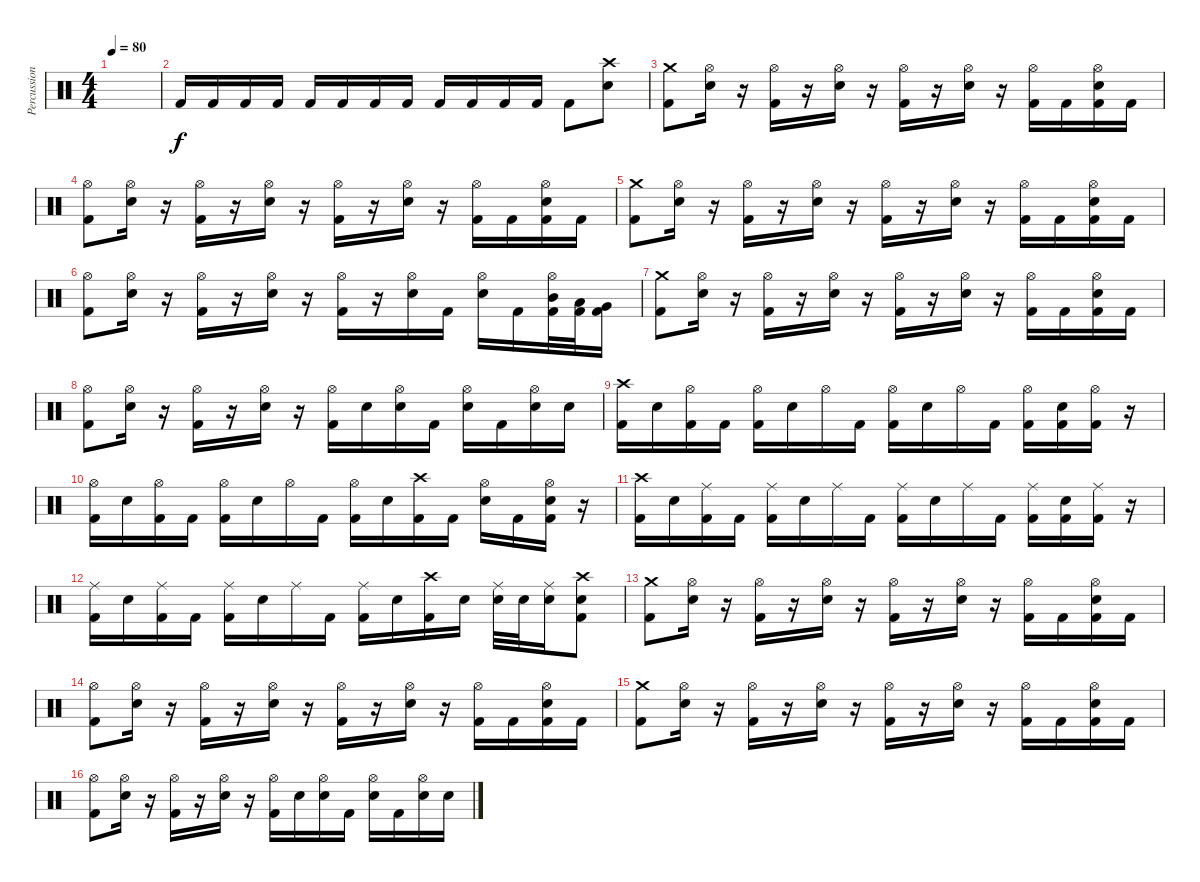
\track ("Percussion" "Percussion") {instrument percussion}
\staff {score}
\articulation defaults
\ts (4 4)
\tempo 80
\clef neutral
\ks c
|
"Kick (hit) 2".16 "Kick (hit) 2".16 "Kick (hit) 2".16 "Kick (hit) 2".16 "Kick (hit) 2".16 "Kick (hit) 2".16 "Kick (hit) 2".16 "Kick (hit) 2".16 "Kick (hit) 2".16 "Kick (hit) 2".16 "Kick (hit) 2".16 "Kick (hit) 2".16 "Kick (hit) 2".8 ("Crash high (hit)" "Electric Snare (hit)").8 |
("Crash medium (hit)" "Kick (hit) 2").8 ("Hi-Hat (open)" "Electric Snare (hit)").16 r.16 ("Hi-Hat (open)" "Kick (hit) 2").16 r.16 ("Hi-Hat (open)" "Electric Snare (hit)").16 r.16 ("Hi-Hat (open)" "Kick (hit) 2").16 r.16 ("Hi-Hat (open)" "Electric Snare (hit)").16 r.16 ("Hi-Hat (open)" "Kick (hit) 2").16 "Kick (hit) 2".16 ("Hi-Hat (open)" "Electric Snare (hit)" "Kick (hit) 2").16 "Kick (hit) 2".16 |
("Hi-Hat (open)" "Kick (hit) 2").8 ("Hi-Hat (open)" "Electric Snare (hit)").16 r.16 ("Hi-Hat (open)" "Kick (hit) 2").16 r.16 ("Hi-Hat (open)" "Electric Snare (hit)").16 r.16 ("Hi-Hat (open)" "Kick (hit) 2").16 r.16 ("Hi-Hat (open)" "Electric Snare (hit)").16 r.16 ("Hi-Hat (open)" "Kick (hit) 2").16 "Kick (hit) 2".16 ("Hi-Hat (open)" "Electric Snare (hit)" "Kick (hit) 2").16 "Kick (hit) 2".16 |
("Crash medium (hit)" "Kick (hit) 2").8 ("Hi-Hat (open)" "Electric Snare (hit)").16 r.16 ("Hi-Hat (open)" "Kick (hit) 2").16 r.16 ("Hi-Hat (open)" "Electric Snare (hit)").16 r.16 ("Hi-Hat (open)" "Kick (hit) 2").16 r.16 ("Hi-Hat (open)" "Electric Snare (hit)").16 r.16 ("Hi-Hat (open)" "Kick (hit) 2").16 "Kick (hit) 2".16 ("Hi-Hat (open)" "Electric Snare (hit)" "Kick (hit) 2").16 "Kick (hit) 2".16 |
("Hi-Hat (open)" "Kick (hit) 2").8 ("Hi-Hat (open)" "Electric Snare (hit)").16 r.16 ("Hi-Hat (open)" "Kick (hit) 2").16 r.16 ("Hi-Hat (open)" "Electric Snare (hit)").16 r.16 ("Hi-Hat (open)" "Kick (hit) 2").16 r.16 ("Hi-Hat (open)" "Electric Snare (hit)").16 "Kick (hit) 2".16 ("Hi-Hat (open)" "Electric Snare (hit)").16 "Kick (hit) 2".16 ("Hi-Hat (open)" "Mid Tom (hit)" "Kick (hit) 2").32 ("Low Tom (hit)" "Kick (hit) 2").32 ("Very Low Tom (hit)" "Kick (hit) 2").16 |
("Crash medium (hit)" "Kick (hit) 2").8 ("Hi-Hat (open)" "Electric Snare (hit)").16 r.16 ("Hi-Hat (open)" "Kick (hit) 2").16 r.16 ("Hi-Hat (open)" "Electric Snare (hit)").16 r.16 ("Hi-Hat (open)" "Kick (hit) 2").16 r.16 ("Hi-Hat (open)" "Electric Snare (hit)").16 r.16 ("Hi-Hat (open)" "Kick (hit) 2").16 "Kick (hit) 2".16 ("Hi-Hat (open)" "Electric Snare (hit)" "Kick (hit) 2").16 "Kick (hit) 2".16 |
("Hi-Hat (open)" "Kick (hit) 2").8 ("Hi-Hat (open)" "Electric Snare (hit)").16 r.16 ("Hi-Hat (open)" "Kick (hit) 2").16 r.16 ("Hi-Hat (open)" "Electric Snare (hit)").16 r.16 ("Hi-Hat (open)" "Kick (hit) 2").16 "Electric Snare (hit)".16 ("Hi-Hat (open)" "Electric Snare (hit)").16 "Kick (hit) 2".16 ("Hi-Hat (open)" "Electric Snare (hit)").16 "Kick (hit) 2".16 ("Hi-Hat (open)" "Electric Snare (hit)").16 "Electric Snare (hit)".16 |
("Crash high (hit)" "Kick (hit) 2").16 "Electric Snare (hit)".16 ("Hi-Hat (open)" "Kick (hit) 2").16 "Kick (hit) 2".16 ("Hi-Hat (open)" "Kick (hit) 2").16 "Electric Snare (hit)".16 "Hi-Hat (open)".16 "Kick (hit) 2".16 ("Hi-Hat (open)" "Kick (hit) 2").16 "Electric Snare (hit)".16 "Hi-Hat (open)".16 "Kick (hit) 2".16 ("Hi-Hat (open)" "Kick (hit) 2").16 ("Electric Snare (hit)" "Kick (hit) 2").16 ("Hi-Hat (open)" "Kick (hit) 2").16 r.16 |
("Hi-Hat (open)" "Kick (hit) 2").16 "Electric Snare (hit)".16 ("Hi-Hat (open)" "Kick (hit) 2").16 "Kick (hit) 2".16 ("Hi-Hat (open)" "Kick (hit) 2").16 "Electric Snare (hit)".16 "Hi-Hat (open)".16 "Kick (hit) 2".16 ("Hi-Hat (open)" "Kick (hit) 2").16 "Electric Snare (hit)".16 ("Crash high (hit)" "Kick (hit) 2").16 "Kick (hit) 2".16 ("Hi-Hat (open)" "Electric Snare (hit)").16 "Kick (hit) 2".16 ("Hi-Hat (open)" "Electric Snare (hit)" "Kick (hit) 2").16 r.16 |
("Crash high (hit)" "Kick (hit) 2").16 "Electric Snare (hit)".16 ("Ride (middle)" "Kick (hit) 2").16 "Kick (hit) 2".16 ("Ride (middle)" "Kick (hit) 2").16 "Electric Snare (hit)".16 "Ride (middle)".16 "Kick (hit) 2".16 ("Ride (middle)" "Kick (hit) 2").16 "Electric Snare (hit)".16 "Ride (middle)".16 "Kick (hit) 2".16 ("Ride (middle)" "Kick (hit) 2").16 ("Electric Snare (hit)" "Kick (hit) 2").16 ("Ride (middle)" "Kick (hit) 2").16 r.16 |
("Ride (middle)" "Kick (hit) 2").16 "Electric Snare (hit)".16 ("Ride (middle)" "Kick (hit) 2").16 "Kick (hit) 2".16 ("Ride (middle)" "Kick (hit) 2").16 "Electric Snare (hit)".16 "Ride (middle)".16 "Kick (hit) 2".16 ("Ride (middle)" "Kick (hit) 2").16 "Electric Snare (hit)".16 ("Crash high (hit)" "Kick (hit) 2").16 "Electric Snare (hit)".16 ("Ride (middle)" "Electric Snare (hit)").32 "Electric Snare (hit)".32 ("Ride (middle)" "Electric Snare (hit)").16 ("Crash high (hit)" "Electric Snare (hit)" "Kick (hit) 2").8 |
("Crash medium (hit)" "Kick (hit) 2").8 ("Hi-Hat (open)" "Electric Snare (hit)").16 r.16 ("Hi-Hat (open)" "Kick (hit) 2").16 r.16 ("Hi-Hat (open)" "Electric Snare (hit)").16 r.16 ("Hi-Hat (open)" "Kick (hit) 2").16 r.16 ("Hi-Hat (open)" "Electric Snare (hit)").16 r.16 ("Hi-Hat (open)" "Kick (hit) 2").16 "Kick (hit) 2".16 ("Hi-Hat (open)" "Electric Snare (hit)" "Kick (hit) 2").16 "Kick (hit) 2".16 |
("Hi-Hat (open)" "Kick (hit) 2").8 ("Hi-Hat (open)" "Electric Snare (hit)").16 r.16 ("Hi-Hat (open)" "Kick (hit) 2").16 r.16 ("Hi-Hat (open)" "Electric Snare (hit)").16 r.16 ("Hi-Hat (open)" "Kick (hit) 2").16 r.16 ("Hi-Hat (open)" "Electric Snare (hit)").16 r.16 ("Hi-Hat (open)" "Kick (hit) 2").16 "Kick (hit) 2".16 ("Hi-Hat (open)" "Electric Snare (hit)" "Kick (hit) 2").16 "Kick (hit) 2".16 |
("Crash medium (hit)" "Kick (hit) 2").8 ("Hi-Hat (open)" "Electric Snare (hit)").16 r.16 ("Hi-Hat (open)" "Kick (hit) 2").16 r.16 ("Hi-Hat (open)" "Electric Snare (hit)").16 r.16 ("Hi-Hat (open)" "Kick (hit) 2").16 r.16 ("Hi-Hat (open)" "Electric Snare (hit)").16 r.16 ("Hi-Hat (open)" "Kick (hit) 2").16 "Kick (hit) 2".16 ("Hi-Hat (open)" "Electric Snare (hit)" "Kick (hit) 2").16 "Kick (hit) 2".16 |
("Hi-Hat (open)" "Kick (hit) 2").8 ("Hi-Hat (open)" "Electric Snare (hit)").16 r.16 ("Hi-Hat (open)" "Kick (hit) 2").16 r.16 ("Hi-Hat (open)" "Electric Snare (hit)").16 r.16 ("Hi-Hat (open)" "Kick (hit) 2").16 "Electric Snare (hit)".16 ("Hi-Hat (open)" "Electric Snare (hit)").16 "Kick (hit) 2".16 ("Hi-Hat (open)" "Electric Snare (hit)").16 "Kick (hit) 2".16 ("Hi-Hat (open)" "Electric Snare (hit)").16 "Electric Snare (hit)".16
